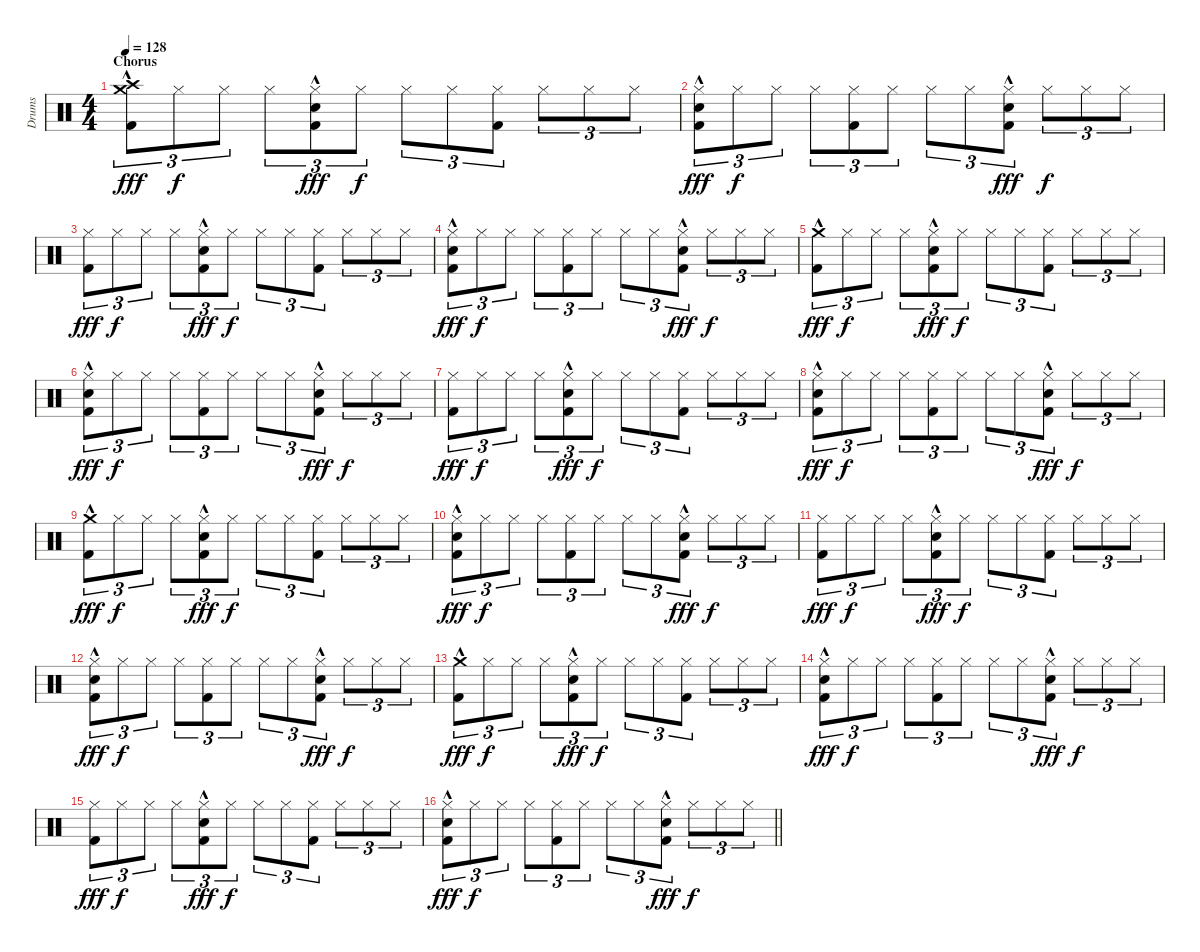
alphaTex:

\track ("Drums" "Drums") {instrument percussion}
\staff {score}
\articulation defaults
\ts (4 4)
\section ("" "Chorus")
\tempo 128
\clef neutral
\ks c
("Crash high (hit)"{hac} "Crash medium (hit)"{hac} "Kick (hit) 2").8{tu (3 2) dy fff} "Hi-Hat (closed)".8{tu (3 2) dy f} "Hi-Hat (closed)".8{tu (3 2)} "Hi-Hat (closed)".8{tu (3 2)} ("Hi-Hat (closed)" "Snare (hit) 2"{hac} "Kick (hit) 2").8{tu (3 2) dy fff} "Hi-Hat (closed)".8{tu (3 2) dy f} "Hi-Hat (closed)".8{tu (3 2)} "Hi-Hat (closed)".8{tu (3 2)} ("Hi-Hat (closed)" "Kick (hit) 2").8{tu (3 2)} "Hi-Hat (closed)".8{tu (3 2)} "Hi-Hat (closed)".8{tu (3 2)} "Hi-Hat (closed)".8{tu (3 2)} |
("Hi-Hat (closed)" "Snare (hit) 2"{hac} "Kick (hit) 2").8{tu (3 2) dy fff} "Hi-Hat (closed)".8{tu (3 2) dy f} "Hi-Hat (closed)".8{tu (3 2)} "Hi-Hat (closed)".8{tu (3 2)} ("Hi-Hat (closed)" "Kick (hit) 2").8{tu (3 2)} "Hi-Hat (closed)".8{tu (3 2)} "Hi-Hat (closed)".8{tu (3 2)} "Hi-Hat (closed)".8{tu (3 2)} ("Hi-Hat (closed)" "Snare (hit) 2"{hac} "Kick (hit) 2").8{tu (3 2) dy fff} "Hi-Hat (closed)".8{tu (3 2) dy f} "Hi-Hat (closed)".8{tu (3 2)} "Hi-Hat (closed)".8{tu (3 2)} |
("Hi-Hat (closed)" "Kick (hit) 2").8{tu (3 2) dy fff} "Hi-Hat (closed)".8{tu (3 2) dy f} "Hi-Hat (closed)".8{tu (3 2)} "Hi-Hat (closed)".8{tu (3 2)} ("Hi-Hat (closed)" "Snare (hit) 2"{hac} "Kick (hit) 2").8{tu (3 2) dy fff} "Hi-Hat (closed)".8{tu (3 2) dy f} "Hi-Hat (closed)".8{tu (3 2)} "Hi-Hat (closed)".8{tu (3 2)} ("Hi-Hat (closed)" "Kick (hit) 2").8{tu (3 2)} "Hi-Hat (closed)".8{tu (3 2)} "Hi-Hat (closed)".8{tu (3 2)} "Hi-Hat (closed)".8{tu (3 2)} |
("Hi-Hat (closed)" "Snare (hit) 2"{hac} "Kick (hit) 2").8{tu (3 2) dy fff} "Hi-Hat (closed)".8{tu (3 2) dy f} "Hi-Hat (closed)".8{tu (3 2)} "Hi-Hat (closed)".8{tu (3 2)} ("Hi-Hat (closed)" "Kick (hit) 2").8{tu (3 2)} "Hi-Hat (closed)".8{tu (3 2)} "Hi-Hat (closed)".8{tu (3 2)} "Hi-Hat (closed)".8{tu (3 2)} ("Hi-Hat (closed)" "Snare (hit) 2"{hac} "Kick (hit) 2").8{tu (3 2) dy fff} "Hi-Hat (closed)".8{tu (3 2) dy f} "Hi-Hat (closed)".8{tu (3 2)} "Hi-Hat (closed)".8{tu (3 2)} |
("Crash medium (hit)"{hac} "Kick (hit) 2").8{tu (3 2) dy fff} "Hi-Hat (closed)".8{tu (3 2) dy f} "Hi-Hat (closed)".8{tu (3 2)} "Hi-Hat (closed)".8{tu (3 2)} ("Hi-Hat (closed)" "Snare (hit) 2"{hac} "Kick (hit) 2").8{tu (3 2) dy fff} "Hi-Hat (closed)".8{tu (3 2) dy f} "Hi-Hat (closed)".8{tu (3 2)} "Hi-Hat (closed)".8{tu (3 2)} ("Hi-Hat (closed)" "Kick (hit) 2").8{tu (3 2)} "Hi-Hat (closed)".8{tu (3 2)} "Hi-Hat (closed)".8{tu (3 2)} "Hi-Hat (closed)".8{tu (3 2)} |
("Hi-Hat (closed)" "Snare (hit) 2"{hac} "Kick (hit) 2").8{tu (3 2) dy fff} "Hi-Hat (closed)".8{tu (3 2) dy f} "Hi-Hat (closed)".8{tu (3 2)} "Hi-Hat (closed)".8{tu (3 2)} ("Hi-Hat (closed)" "Kick (hit) 2").8{tu (3 2)} "Hi-Hat (closed)".8{tu (3 2)} "Hi-Hat (closed)".8{tu (3 2)} "Hi-Hat (closed)".8{tu (3 2)} ("Hi-Hat (closed)" "Snare (hit) 2"{hac} "Kick (hit) 2").8{tu (3 2) dy fff} "Hi-Hat (closed)".8{tu (3 2) dy f} "Hi-Hat (closed)".8{tu (3 2)} "Hi-Hat (closed)".8{tu (3 2)} |
("Hi-Hat (closed)" "Kick (hit) 2").8{tu (3 2) dy fff} "Hi-Hat (closed)".8{tu (3 2) dy f} "Hi-Hat (closed)".8{tu (3 2)} "Hi-Hat (closed)".8{tu (3 2)} ("Hi-Hat (closed)" "Snare (hit) 2"{hac} "Kick (hit) 2").8{tu (3 2) dy fff} "Hi-Hat (closed)".8{tu (3 2) dy f} "Hi-Hat (closed)".8{tu (3 2)} "Hi-Hat (closed)".8{tu (3 2)} ("Hi-Hat (closed)" "Kick (hit) 2").8{tu (3 2)} "Hi-Hat (closed)".8{tu (3 2)} "Hi-Hat (closed)".8{tu (3 2)} "Hi-Hat (closed)".8{tu (3 2)} |
("Hi-Hat (closed)" "Snare (hit) 2"{hac} "Kick (hit) 2").8{tu (3 2) dy fff} "Hi-Hat (closed)".8{tu (3 2) dy f} "Hi-Hat (closed)".8{tu (3 2)} "Hi-Hat (closed)".8{tu (3 2)} ("Hi-Hat (closed)" "Kick (hit) 2").8{tu (3 2)} "Hi-Hat (closed)".8{tu (3 2)} "Hi-Hat (closed)".8{tu (3 2)} "Hi-Hat (closed)".8{tu (3 2)} ("Hi-Hat (closed)" "Snare (hit) 2"{hac} "Kick (hit) 2").8{tu (3 2) dy fff} "Hi-Hat (closed)".8{tu (3 2) dy f} "Hi-Hat (closed)".8{tu (3 2)} "Hi-Hat (closed)".8{tu (3 2)} |
("Crash medium (hit)"{hac} "Kick (hit) 2").8{tu (3 2) dy fff} "Hi-Hat (closed)".8{tu (3 2) dy f} "Hi-Hat (closed)".8{tu (3 2)} "Hi-Hat (closed)".8{tu (3 2)} ("Hi-Hat (closed)" "Snare (hit) 2"{hac} "Kick (hit) 2").8{tu (3 2) dy fff} "Hi-Hat (closed)".8{tu (3 2) dy f} "Hi-Hat (closed)".8{tu (3 2)} "Hi-Hat (closed)".8{tu (3 2)} ("Hi-Hat (closed)" "Kick (hit) 2").8{tu (3 2)} "Hi-Hat (closed)".8{tu (3 2)} "Hi-Hat (closed)".8{tu (3 2)} "Hi-Hat (closed)".8{tu (3 2)} |
("Hi-Hat (closed)" "Snare (hit) 2"{hac} "Kick (hit) 2").8{tu (3 2) dy fff} "Hi-Hat (closed)".8{tu (3 2) dy f} "Hi-Hat (closed)".8{tu (3 2)} "Hi-Hat (closed)".8{tu (3 2)} ("Hi-Hat (closed)" "Kick (hit) 2").8{tu (3 2)} "Hi-Hat (closed)".8{tu (3 2)} "Hi-Hat (closed)".8{tu (3 2)} "Hi-Hat (closed)".8{tu (3 2)} ("Hi-Hat (closed)" "Snare (hit) 2"{hac} "Kick (hit) 2").8{tu (3 2) dy fff} "Hi-Hat (closed)".8{tu (3 2) dy f} "Hi-Hat (closed)".8{tu (3 2)} "Hi-Hat (closed)".8{tu (3 2)} |
("Hi-Hat (closed)" "Kick (hit) 2").8{tu (3 2) dy fff} "Hi-Hat (closed)".8{tu (3 2) dy f} "Hi-Hat (closed)".8{tu (3 2)} "Hi-Hat (closed)".8{tu (3 2)} ("Hi-Hat (closed)" "Snare (hit) 2"{hac} "Kick (hit) 2").8{tu (3 2) dy fff} "Hi-Hat (closed)".8{tu (3 2) dy f} "Hi-Hat (closed)".8{tu (3 2)} "Hi-Hat (closed)".8{tu (3 2)} ("Hi-Hat (closed)" "Kick (hit) 2").8{tu (3 2)} "Hi-Hat (closed)".8{tu (3 2)} "Hi-Hat (closed)".8{tu (3 2)} "Hi-Hat (closed)".8{tu (3 2)} |
("Hi-Hat (closed)" "Snare (hit) 2"{hac} "Kick (hit) 2").8{tu (3 2) dy fff} "Hi-Hat (closed)".8{tu (3 2) dy f} "Hi-Hat (closed)".8{tu (3 2)} "Hi-Hat (closed)".8{tu (3 2)} ("Hi-Hat (closed)" "Kick (hit) 2").8{tu (3 2)} "Hi-Hat (closed)".8{tu (3 2)} "Hi-Hat (closed)".8{tu (3 2)} "Hi-Hat (closed)".8{tu (3 2)} ("Hi-Hat (closed)" "Snare (hit) 2"{hac} "Kick (hit) 2").8{tu (3 2) dy fff} "Hi-Hat (closed)".8{tu (3 2) dy f} "Hi-Hat (closed)".8{tu (3 2)} "Hi-Hat (closed)".8{tu (3 2)} |
("Crash medium (hit)"{hac} "Kick (hit) 2").8{tu (3 2) dy fff} "Hi-Hat (closed)".8{tu (3 2) dy f} "Hi-Hat (closed)".8{tu (3 2)} "Hi-Hat (closed)".8{tu (3 2)} ("Hi-Hat (closed)" "Snare (hit) 2"{hac} "Kick (hit) 2").8{tu (3 2) dy fff} "Hi-Hat (closed)".8{tu (3 2) dy f} "Hi-Hat (closed)".8{tu (3 2)} "Hi-Hat (closed)".8{tu (3 2)} ("Hi-Hat (closed)" "Kick (hit) 2").8{tu (3 2)} "Hi-Hat (closed)".8{tu (3 2)} "Hi-Hat (closed)".8{tu (3 2)} "Hi-Hat (closed)".8{tu (3 2)} |
("Hi-Hat (closed)" "Snare (hit) 2"{hac} "Kick (hit) 2").8{tu (3 2) dy fff} "Hi-Hat (closed)".8{tu (3 2) dy f} "Hi-Hat (closed)".8{tu (3 2)} "Hi-Hat (closed)".8{tu (3 2)} ("Hi-Hat (closed)" "Kick (hit) 2").8{tu (3 2)} "Hi-Hat (closed)".8{tu (3 2)} "Hi-Hat (closed)".8{tu (3 2)} "Hi-Hat (closed)".8{tu (3 2)} ("Hi-Hat (closed)" "Snare (hit) 2"{hac} "Kick (hit) 2").8{tu (3 2) dy fff} "Hi-Hat (closed)".8{tu (3 2) dy f} "Hi-Hat (closed)".8{tu (3 2)} "Hi-Hat (closed)".8{tu (3 2)} |
("Hi-Hat (closed)" "Kick (hit) 2").8{tu (3 2) dy fff} "Hi-Hat (closed)".8{tu (3 2) dy f} "Hi-Hat (closed)".8{tu (3 2)} "Hi-Hat (closed)".8{tu (3 2)} ("Hi-Hat (closed)" "Snare (hit) 2"{hac} "Kick (hit) 2").8{tu (3 2) dy fff} "Hi-Hat (closed)".8{tu (3 2) dy f} "Hi-Hat (closed)".8{tu (3 2)} "Hi-Hat (closed)".8{tu (3 2)} ("Hi-Hat (closed)" "Kick (hit) 2").8{tu (3 2)} "Hi-Hat (closed)".8{tu (3 2)} "Hi-Hat (closed)".8{tu (3 2)} "Hi-Hat (closed)".8{tu (3 2)} |
\barLineRight lightlight
("Hi-Hat (closed)" "Snare (hit) 2"{hac} "Kick (hit) 2").8{tu (3 2) dy fff} "Hi-Hat (closed)".8{tu (3 2) dy f} "Hi-Hat (closed)".8{tu (3 2)} "Hi-Hat (closed)".8{tu (3 2)} ("Hi-Hat (closed)" "Kick (hit) 2").8{tu (3 2)} "Hi-Hat (closed)".8{tu (3 2)} "Hi-Hat (closed)".8{tu (3 2)} "Hi-Hat (closed)".8{tu (3 2)} ("Hi-Hat (closed)" "Snare (hit) 2"{hac} "Kick (hit) 2").8{tu (3 2) dy fff} "Hi-Hat (closed)".8{tu (3 2) dy f} "Hi-Hat (closed)".8{tu (3 2)} "Hi-Hat (closed)".8{tu (3 2)}
